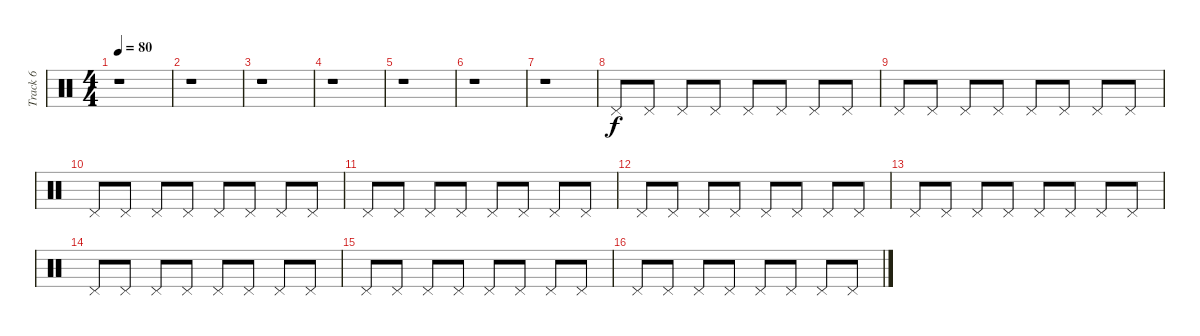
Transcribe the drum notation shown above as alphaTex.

\track ("Track 6" "Track 6") {instrument percussion}
\staff {score}
\articulation defaults
\ts (4 4)
\tempo 80
\clef neutral
\ks c
r.1{dy f} |
r.1 |
r.1 |
r.1 |
r.1 |
r.1 |
r.1 |
"Pedal Hi-Hat (hit)".8 "Pedal Hi-Hat (hit)".8 "Pedal Hi-Hat (hit)".8 "Pedal Hi-Hat (hit)".8 "Pedal Hi-Hat (hit)".8 "Pedal Hi-Hat (hit)".8 "Pedal Hi-Hat (hit)".8 "Pedal Hi-Hat (hit)".8 |
"Pedal Hi-Hat (hit)".8 "Pedal Hi-Hat (hit)".8 "Pedal Hi-Hat (hit)".8 "Pedal Hi-Hat (hit)".8 "Pedal Hi-Hat (hit)".8 "Pedal Hi-Hat (hit)".8 "Pedal Hi-Hat (hit)".8 "Pedal Hi-Hat (hit)".8 |
"Pedal Hi-Hat (hit)".8 "Pedal Hi-Hat (hit)".8 "Pedal Hi-Hat (hit)".8 "Pedal Hi-Hat (hit)".8 "Pedal Hi-Hat (hit)".8 "Pedal Hi-Hat (hit)".8 "Pedal Hi-Hat (hit)".8 "Pedal Hi-Hat (hit)".8 |
"Pedal Hi-Hat (hit)".8 "Pedal Hi-Hat (hit)".8 "Pedal Hi-Hat (hit)".8 "Pedal Hi-Hat (hit)".8 "Pedal Hi-Hat (hit)".8 "Pedal Hi-Hat (hit)".8 "Pedal Hi-Hat (hit)".8 "Pedal Hi-Hat (hit)".8 |
"Pedal Hi-Hat (hit)".8 "Pedal Hi-Hat (hit)".8 "Pedal Hi-Hat (hit)".8 "Pedal Hi-Hat (hit)".8 "Pedal Hi-Hat (hit)".8 "Pedal Hi-Hat (hit)".8 "Pedal Hi-Hat (hit)".8 "Pedal Hi-Hat (hit)".8 |
"Pedal Hi-Hat (hit)".8 "Pedal Hi-Hat (hit)".8 "Pedal Hi-Hat (hit)".8 "Pedal Hi-Hat (hit)".8 "Pedal Hi-Hat (hit)".8 "Pedal Hi-Hat (hit)".8 "Pedal Hi-Hat (hit)".8 "Pedal Hi-Hat (hit)".8 |
"Pedal Hi-Hat (hit)".8 "Pedal Hi-Hat (hit)".8 "Pedal Hi-Hat (hit)".8 "Pedal Hi-Hat (hit)".8 "Pedal Hi-Hat (hit)".8 "Pedal Hi-Hat (hit)".8 "Pedal Hi-Hat (hit)".8 "Pedal Hi-Hat (hit)".8 |
"Pedal Hi-Hat (hit)".8 "Pedal Hi-Hat (hit)".8 "Pedal Hi-Hat (hit)".8 "Pedal Hi-Hat (hit)".8 "Pedal Hi-Hat (hit)".8 "Pedal Hi-Hat (hit)".8 "Pedal Hi-Hat (hit)".8 "Pedal Hi-Hat (hit)".8 |
"Pedal Hi-Hat (hit)".8 "Pedal Hi-Hat (hit)".8 "Pedal Hi-Hat (hit)".8 "Pedal Hi-Hat (hit)".8 "Pedal Hi-Hat (hit)".8 "Pedal Hi-Hat (hit)".8 "Pedal Hi-Hat (hit)".8 "Pedal Hi-Hat (hit)".8
